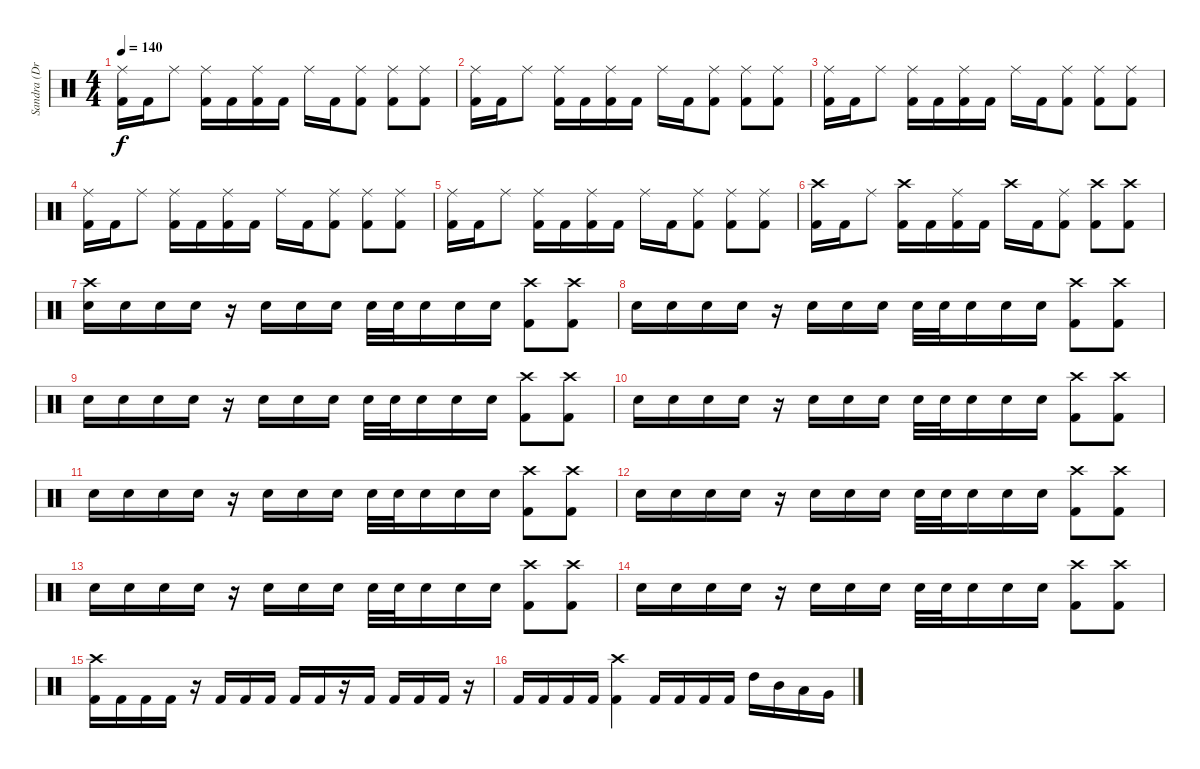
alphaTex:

\track ("Sandra (Drums)" "Sandra (Dr") {instrument percussion}
\staff {score}
\articulation defaults
\ts (4 4)
\tempo 140
\clef neutral
\ks c
("Ride (middle)" "Kick (hit) 2").16{dy f} "Kick (hit) 2".16 "Ride (middle)".8 ("Ride (middle)" "Kick (hit) 2").16 "Kick (hit) 2".16 ("Ride (middle)" "Kick (hit) 2").16 "Kick (hit) 2".16 "Ride (middle)".16 "Kick (hit) 2".16 ("Ride (middle)" "Kick (hit) 2").8 ("Ride (middle)" "Kick (hit) 2").8 ("Ride (middle)" "Kick (hit) 2").8 |
("Ride (middle)" "Kick (hit) 2").16 "Kick (hit) 2".16 "Ride (middle)".8 ("Ride (middle)" "Kick (hit) 2").16 "Kick (hit) 2".16 ("Ride (middle)" "Kick (hit) 2").16 "Kick (hit) 2".16 "Ride (middle)".16 "Kick (hit) 2".16 ("Ride (middle)" "Kick (hit) 2").8 ("Ride (middle)" "Kick (hit) 2").8 ("Ride (middle)" "Kick (hit) 2").8 |
("Ride (middle)" "Kick (hit) 2").16 "Kick (hit) 2".16 "Ride (middle)".8 ("Ride (middle)" "Kick (hit) 2").16 "Kick (hit) 2".16 ("Ride (middle)" "Kick (hit) 2").16 "Kick (hit) 2".16 "Ride (middle)".16 "Kick (hit) 2".16 ("Ride (middle)" "Kick (hit) 2").8 ("Ride (middle)" "Kick (hit) 2").8 ("Ride (middle)" "Kick (hit) 2").8 |
("Ride (middle)" "Kick (hit) 2").16 "Kick (hit) 2".16 "Ride (middle)".8 ("Ride (middle)" "Kick (hit) 2").16 "Kick (hit) 2".16 ("Ride (middle)" "Kick (hit) 2").16 "Kick (hit) 2".16 "Ride (middle)".16 "Kick (hit) 2".16 ("Ride (middle)" "Kick (hit) 2").8 ("Ride (middle)" "Kick (hit) 2").8 ("Ride (middle)" "Kick (hit) 2").8 |
("Ride (middle)" "Kick (hit) 2").16 "Kick (hit) 2".16 "Ride (middle)".8 ("Ride (middle)" "Kick (hit) 2").16 "Kick (hit) 2".16 ("Ride (middle)" "Kick (hit) 2").16 "Kick (hit) 2".16 "Ride (middle)".16 "Kick (hit) 2".16 ("Ride (middle)" "Kick (hit) 2").8 ("Ride (middle)" "Kick (hit) 2").8 ("Ride (middle)" "Kick (hit) 2").8 |
("Crash high (hit)" "Kick (hit) 2").16 "Kick (hit) 2".16 "Ride (middle)".8 ("Crash high (hit)" "Kick (hit) 2").16 "Kick (hit) 2".16 ("Ride (middle)" "Kick (hit) 2").16 "Kick (hit) 2".16 "Crash high (hit)".16 "Kick (hit) 2".16 ("Ride (middle)" "Kick (hit) 2").8 ("Crash high (hit)" "Kick (hit) 2").8 ("Crash high (hit)" "Kick (hit) 2").8 |
("Crash high (hit)" "Snare (hit) 2").16 "Snare (hit) 2".16 "Snare (hit) 2".16 "Snare (hit) 2".16 r.16 "Snare (hit) 2".16 "Snare (hit) 2".16 "Snare (hit) 2".16 "Snare (hit) 2".32 "Snare (hit) 2".32 "Snare (hit) 2".16 "Snare (hit) 2".16 "Snare (hit) 2".16 ("Crash high (hit)" "Kick (hit) 2").8 ("Crash high (hit)" "Kick (hit) 2").8 |
"Snare (hit) 2".16 "Snare (hit) 2".16 "Snare (hit) 2".16 "Snare (hit) 2".16 r.16 "Snare (hit) 2".16 "Snare (hit) 2".16 "Snare (hit) 2".16 "Snare (hit) 2".32 "Snare (hit) 2".32 "Snare (hit) 2".16 "Snare (hit) 2".16 "Snare (hit) 2".16 ("Crash high (hit)" "Kick (hit) 2").8 ("Crash high (hit)" "Kick (hit) 2").8 |
"Snare (hit) 2".16 "Snare (hit) 2".16 "Snare (hit) 2".16 "Snare (hit) 2".16 r.16 "Snare (hit) 2".16 "Snare (hit) 2".16 "Snare (hit) 2".16 "Snare (hit) 2".32 "Snare (hit) 2".32 "Snare (hit) 2".16 "Snare (hit) 2".16 "Snare (hit) 2".16 ("Crash high (hit)" "Kick (hit) 2").8 ("Crash high (hit)" "Kick (hit) 2").8 |
"Snare (hit) 2".16 "Snare (hit) 2".16 "Snare (hit) 2".16 "Snare (hit) 2".16 r.16 "Snare (hit) 2".16 "Snare (hit) 2".16 "Snare (hit) 2".16 "Snare (hit) 2".32 "Snare (hit) 2".32 "Snare (hit) 2".16 "Snare (hit) 2".16 "Snare (hit) 2".16 ("Crash high (hit)" "Kick (hit) 2").8 ("Crash high (hit)" "Kick (hit) 2").8 |
"Snare (hit) 2".16 "Snare (hit) 2".16 "Snare (hit) 2".16 "Snare (hit) 2".16 r.16 "Snare (hit) 2".16 "Snare (hit) 2".16 "Snare (hit) 2".16 "Snare (hit) 2".32 "Snare (hit) 2".32 "Snare (hit) 2".16 "Snare (hit) 2".16 "Snare (hit) 2".16 ("Crash high (hit)" "Kick (hit) 2").8 ("Crash high (hit)" "Kick (hit) 2").8 |
"Snare (hit) 2".16 "Snare (hit) 2".16 "Snare (hit) 2".16 "Snare (hit) 2".16 r.16 "Snare (hit) 2".16 "Snare (hit) 2".16 "Snare (hit) 2".16 "Snare (hit) 2".32 "Snare (hit) 2".32 "Snare (hit) 2".16 "Snare (hit) 2".16 "Snare (hit) 2".16 ("Crash high (hit)" "Kick (hit) 2").8 ("Crash high (hit)" "Kick (hit) 2").8 |
"Snare (hit) 2".16 "Snare (hit) 2".16 "Snare (hit) 2".16 "Snare (hit) 2".16 r.16 "Snare (hit) 2".16 "Snare (hit) 2".16 "Snare (hit) 2".16 "Snare (hit) 2".32 "Snare (hit) 2".32 "Snare (hit) 2".16 "Snare (hit) 2".16 "Snare (hit) 2".16 ("Crash high (hit)" "Kick (hit) 2").8 ("Crash high (hit)" "Kick (hit) 2").8 |
"Snare (hit) 2".16 "Snare (hit) 2".16 "Snare (hit) 2".16 "Snare (hit) 2".16 r.16 "Snare (hit) 2".16 "Snare (hit) 2".16 "Snare (hit) 2".16 "Snare (hit) 2".32 "Snare (hit) 2".32 "Snare (hit) 2".16 "Snare (hit) 2".16 "Snare (hit) 2".16 ("Crash high (hit)" "Kick (hit) 2").8 ("Crash high (hit)" "Kick (hit) 2").8 |
("Crash high (hit)" "Kick (hit) 2").16 "Kick (hit) 2".16 "Kick (hit) 2".16 "Kick (hit) 2".16 r.16 "Kick (hit) 2".16 "Kick (hit) 2".16 "Kick (hit) 2".16 "Kick (hit) 2".16 "Kick (hit) 2".16 r.16 "Kick (hit) 2".16 "Kick (hit) 2".16 "Kick (hit) 2".16 "Kick (hit) 2".16 r.16 |
"Kick (hit) 2".16 "Kick (hit) 2".16 "Kick (hit) 2".16 "Kick (hit) 2".16 ("Crash high (hit)" "Kick (hit) 2").4 "Kick (hit) 2".16 "Kick (hit) 2".16 "Kick (hit) 2".16 "Kick (hit) 2".16 "High Tom (hit)".16 "Mid Tom (hit)".16 "Low Tom (hit)".16 "Very Low Tom (hit)".16
